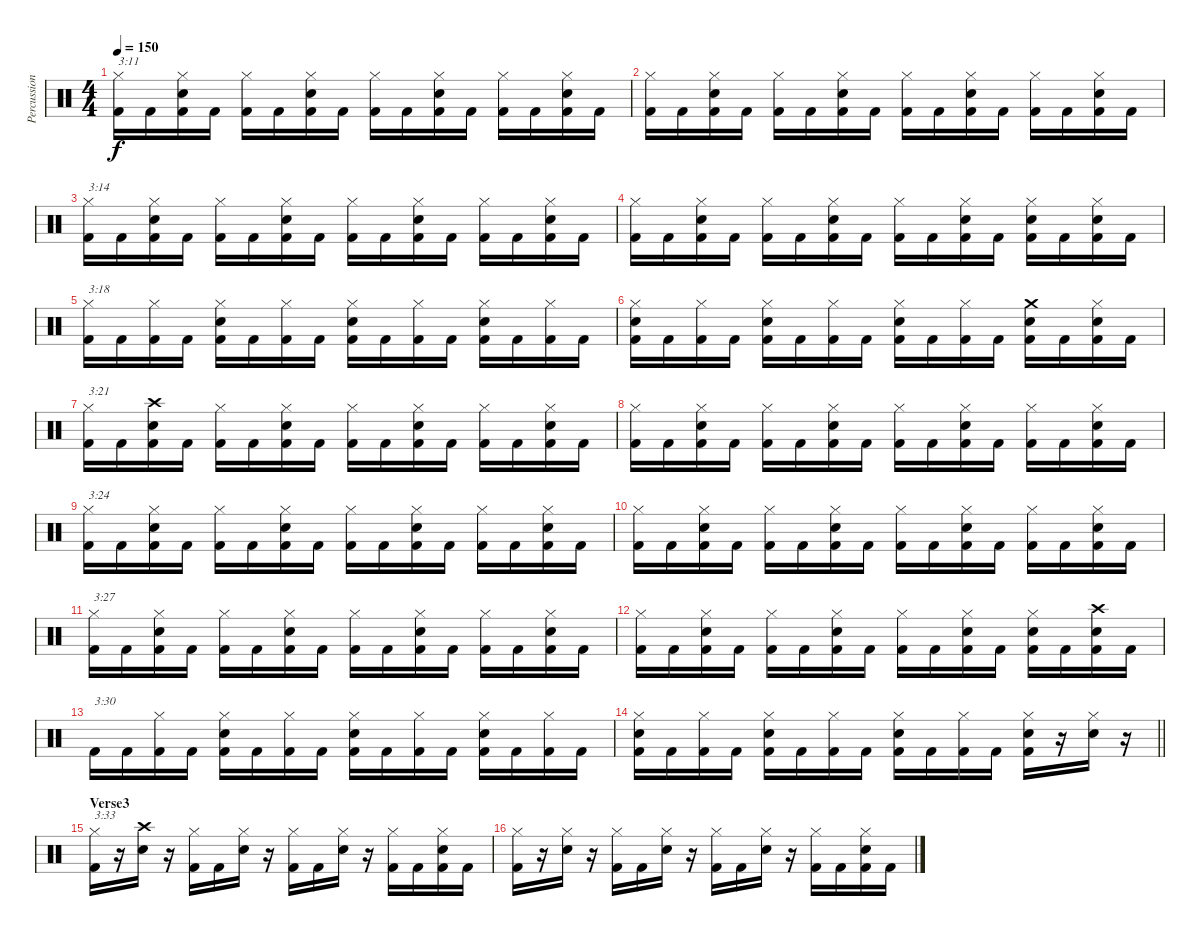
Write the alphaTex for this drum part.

\track ("Percussion" "Percussion") {instrument percussion}
\staff {score}
\articulation defaults
\ts (4 4)
\tempo 150
\clef neutral
\ks c
("Hi-Hat (closed)" "Kick (hit) 2").16{txt "3:11" dy f} "Kick (hit) 2".16 ("Hi-Hat (closed)" "Electric Snare (hit)" "Kick (hit) 2").16 "Kick (hit) 2".16 ("Hi-Hat (closed)" "Kick (hit) 2").16 "Kick (hit) 2".16 ("Hi-Hat (closed)" "Electric Snare (hit)" "Kick (hit) 2").16 "Kick (hit) 2".16 ("Hi-Hat (closed)" "Kick (hit) 2").16 "Kick (hit) 2".16 ("Hi-Hat (closed)" "Electric Snare (hit)" "Kick (hit) 2").16 "Kick (hit) 2".16 ("Hi-Hat (closed)" "Kick (hit) 2").16 "Kick (hit) 2".16 ("Hi-Hat (closed)" "Electric Snare (hit)" "Kick (hit) 2").16 "Kick (hit) 2".16 |
("Hi-Hat (closed)" "Kick (hit) 2").16 "Kick (hit) 2".16 ("Hi-Hat (closed)" "Electric Snare (hit)" "Kick (hit) 2").16 "Kick (hit) 2".16 ("Hi-Hat (closed)" "Kick (hit) 2").16 "Kick (hit) 2".16 ("Hi-Hat (closed)" "Electric Snare (hit)" "Kick (hit) 2").16 "Kick (hit) 2".16 ("Hi-Hat (closed)" "Kick (hit) 2").16 "Kick (hit) 2".16 ("Hi-Hat (closed)" "Electric Snare (hit)" "Kick (hit) 2").16 "Kick (hit) 2".16 ("Hi-Hat (closed)" "Kick (hit) 2").16 "Kick (hit) 2".16 ("Hi-Hat (closed)" "Electric Snare (hit)" "Kick (hit) 2").16 "Kick (hit) 2".16 |
("Hi-Hat (closed)" "Kick (hit) 2").16{txt "3:14"} "Kick (hit) 2".16 ("Hi-Hat (closed)" "Electric Snare (hit)" "Kick (hit) 2").16 "Kick (hit) 2".16 ("Hi-Hat (closed)" "Kick (hit) 2").16 "Kick (hit) 2".16 ("Hi-Hat (closed)" "Electric Snare (hit)" "Kick (hit) 2").16 "Kick (hit) 2".16 ("Hi-Hat (closed)" "Kick (hit) 2").16 "Kick (hit) 2".16 ("Hi-Hat (closed)" "Electric Snare (hit)" "Kick (hit) 2").16 "Kick (hit) 2".16 ("Hi-Hat (closed)" "Kick (hit) 2").16 "Kick (hit) 2".16 ("Hi-Hat (closed)" "Electric Snare (hit)" "Kick (hit) 2").16 "Kick (hit) 2".16 |
("Hi-Hat (closed)" "Kick (hit) 2").16 "Kick (hit) 2".16 ("Hi-Hat (closed)" "Electric Snare (hit)" "Kick (hit) 2").16 "Kick (hit) 2".16 ("Hi-Hat (closed)" "Kick (hit) 2").16 "Kick (hit) 2".16 ("Hi-Hat (closed)" "Electric Snare (hit)" "Kick (hit) 2").16 "Kick (hit) 2".16 ("Hi-Hat (closed)" "Kick (hit) 2").16 "Kick (hit) 2".16 ("Hi-Hat (closed)" "Electric Snare (hit)" "Kick (hit) 2").16 "Kick (hit) 2".16 ("Hi-Hat (closed)" "Electric Snare (hit)" "Kick (hit) 2").16 "Kick (hit) 2".16 ("Hi-Hat (closed)" "Electric Snare (hit)" "Kick (hit) 2").16 "Kick (hit) 2".16 |
("Hi-Hat (closed)" "Kick (hit) 2").16{txt "3:18"} "Kick (hit) 2".16 ("Hi-Hat (closed)" "Kick (hit) 2").16 "Kick (hit) 2".16 ("Hi-Hat (closed)" "Electric Snare (hit)" "Kick (hit) 2").16 "Kick (hit) 2".16 ("Hi-Hat (closed)" "Kick (hit) 2").16 "Kick (hit) 2".16 ("Hi-Hat (closed)" "Electric Snare (hit)" "Kick (hit) 2").16 "Kick (hit) 2".16 ("Hi-Hat (closed)" "Kick (hit) 2").16 "Kick (hit) 2".16 ("Hi-Hat (closed)" "Electric Snare (hit)" "Kick (hit) 2").16 "Kick (hit) 2".16 ("Hi-Hat (closed)" "Kick (hit) 2").16 "Kick (hit) 2".16 |
("Hi-Hat (closed)" "Electric Snare (hit)" "Kick (hit) 2").16 "Kick (hit) 2".16 ("Hi-Hat (closed)" "Kick (hit) 2").16 "Kick (hit) 2".16 ("Hi-Hat (closed)" "Electric Snare (hit)" "Kick (hit) 2").16 "Kick (hit) 2".16 ("Hi-Hat (closed)" "Kick (hit) 2").16 "Kick (hit) 2".16 ("Hi-Hat (closed)" "Electric Snare (hit)" "Kick (hit) 2").16 "Kick (hit) 2".16 ("Hi-Hat (closed)" "Kick (hit) 2").16 "Kick (hit) 2".16 ("Crash medium (hit)" "Electric Snare (hit)" "Kick (hit) 2").16 "Kick (hit) 2".16 ("Hi-Hat (closed)" "Electric Snare (hit)" "Kick (hit) 2").16 "Kick (hit) 2".16 |
("Hi-Hat (closed)" "Kick (hit) 2").16{txt "3:21"} "Kick (hit) 2".16 ("Crash high (hit)" "Electric Snare (hit)" "Kick (hit) 2").16 "Kick (hit) 2".16 ("Hi-Hat (closed)" "Kick (hit) 2").16 "Kick (hit) 2".16 ("Hi-Hat (closed)" "Electric Snare (hit)" "Kick (hit) 2").16 "Kick (hit) 2".16 ("Hi-Hat (closed)" "Kick (hit) 2").16 "Kick (hit) 2".16 ("Hi-Hat (closed)" "Electric Snare (hit)" "Kick (hit) 2").16 "Kick (hit) 2".16 ("Hi-Hat (closed)" "Kick (hit) 2").16 "Kick (hit) 2".16 ("Hi-Hat (closed)" "Electric Snare (hit)" "Kick (hit) 2").16 "Kick (hit) 2".16 |
("Hi-Hat (closed)" "Kick (hit) 2").16 "Kick (hit) 2".16 ("Hi-Hat (closed)" "Electric Snare (hit)" "Kick (hit) 2").16 "Kick (hit) 2".16 ("Hi-Hat (closed)" "Kick (hit) 2").16 "Kick (hit) 2".16 ("Hi-Hat (closed)" "Electric Snare (hit)" "Kick (hit) 2").16 "Kick (hit) 2".16 ("Hi-Hat (closed)" "Kick (hit) 2").16 "Kick (hit) 2".16 ("Hi-Hat (closed)" "Electric Snare (hit)" "Kick (hit) 2").16 "Kick (hit) 2".16 ("Hi-Hat (closed)" "Kick (hit) 2").16 "Kick (hit) 2".16 ("Hi-Hat (closed)" "Electric Snare (hit)" "Kick (hit) 2").16 "Kick (hit) 2".16 |
("Hi-Hat (closed)" "Kick (hit) 2").16{txt "3:24"} "Kick (hit) 2".16 ("Hi-Hat (closed)" "Electric Snare (hit)" "Kick (hit) 2").16 "Kick (hit) 2".16 ("Hi-Hat (closed)" "Kick (hit) 2").16 "Kick (hit) 2".16 ("Hi-Hat (closed)" "Electric Snare (hit)" "Kick (hit) 2").16 "Kick (hit) 2".16 ("Hi-Hat (closed)" "Kick (hit) 2").16 "Kick (hit) 2".16 ("Hi-Hat (closed)" "Electric Snare (hit)" "Kick (hit) 2").16 "Kick (hit) 2".16 ("Hi-Hat (closed)" "Kick (hit) 2").16 "Kick (hit) 2".16 ("Hi-Hat (closed)" "Electric Snare (hit)" "Kick (hit) 2").16 "Kick (hit) 2".16 |
("Hi-Hat (closed)" "Kick (hit) 2").16 "Kick (hit) 2".16 ("Hi-Hat (closed)" "Electric Snare (hit)" "Kick (hit) 2").16 "Kick (hit) 2".16 ("Hi-Hat (closed)" "Kick (hit) 2").16 "Kick (hit) 2".16 ("Hi-Hat (closed)" "Electric Snare (hit)" "Kick (hit) 2").16 "Kick (hit) 2".16 ("Hi-Hat (closed)" "Kick (hit) 2").16 "Kick (hit) 2".16 ("Hi-Hat (closed)" "Electric Snare (hit)" "Kick (hit) 2").16 "Kick (hit) 2".16 ("Hi-Hat (closed)" "Kick (hit) 2").16 "Kick (hit) 2".16 ("Hi-Hat (closed)" "Electric Snare (hit)" "Kick (hit) 2").16 "Kick (hit) 2".16 |
("Hi-Hat (closed)" "Kick (hit) 2").16{txt "3:27"} "Kick (hit) 2".16 ("Hi-Hat (closed)" "Electric Snare (hit)" "Kick (hit) 2").16 "Kick (hit) 2".16 ("Hi-Hat (closed)" "Kick (hit) 2").16 "Kick (hit) 2".16 ("Hi-Hat (closed)" "Electric Snare (hit)" "Kick (hit) 2").16 "Kick (hit) 2".16 ("Hi-Hat (closed)" "Kick (hit) 2").16 "Kick (hit) 2".16 ("Hi-Hat (closed)" "Electric Snare (hit)" "Kick (hit) 2").16 "Kick (hit) 2".16 ("Hi-Hat (closed)" "Kick (hit) 2").16 "Kick (hit) 2".16 ("Hi-Hat (closed)" "Electric Snare (hit)" "Kick (hit) 2").16 "Kick (hit) 2".16 |
("Hi-Hat (closed)" "Kick (hit) 2").16 "Kick (hit) 2".16 ("Hi-Hat (closed)" "Electric Snare (hit)" "Kick (hit) 2").16 "Kick (hit) 2".16 ("Hi-Hat (closed)" "Kick (hit) 2").16 "Kick (hit) 2".16 ("Hi-Hat (closed)" "Electric Snare (hit)" "Kick (hit) 2").16 "Kick (hit) 2".16 ("Hi-Hat (closed)" "Kick (hit) 2").16 "Kick (hit) 2".16 ("Hi-Hat (closed)" "Electric Snare (hit)" "Kick (hit) 2").16 "Kick (hit) 2".16 ("Hi-Hat (closed)" "Electric Snare (hit)" "Kick (hit) 2").16 "Kick (hit) 2".16 ("Crash high (hit)" "Electric Snare (hit)" "Kick (hit) 2").16 "Kick (hit) 2".16 |
"Kick (hit) 2".16{txt "3:30"} "Kick (hit) 2".16 ("Hi-Hat (closed)" "Kick (hit) 2").16 "Kick (hit) 2".16 ("Hi-Hat (closed)" "Electric Snare (hit)" "Kick (hit) 2").16 "Kick (hit) 2".16 ("Hi-Hat (closed)" "Kick (hit) 2").16 "Kick (hit) 2".16 ("Hi-Hat (closed)" "Electric Snare (hit)" "Kick (hit) 2").16 "Kick (hit) 2".16 ("Hi-Hat (closed)" "Kick (hit) 2").16 "Kick (hit) 2".16 ("Hi-Hat (closed)" "Electric Snare (hit)" "Kick (hit) 2").16 "Kick (hit) 2".16 ("Hi-Hat (closed)" "Kick (hit) 2").16 "Kick (hit) 2".16 |
\barLineRight lightlight
("Hi-Hat (closed)" "Electric Snare (hit)" "Kick (hit) 2").16 "Kick (hit) 2".16 ("Hi-Hat (closed)" "Kick (hit) 2").16 "Kick (hit) 2".16 ("Hi-Hat (closed)" "Electric Snare (hit)" "Kick (hit) 2").16 "Kick (hit) 2".16 ("Hi-Hat (closed)" "Kick (hit) 2").16 "Kick (hit) 2".16 ("Hi-Hat (closed)" "Electric Snare (hit)" "Kick (hit) 2").16 "Kick (hit) 2".16 ("Hi-Hat (closed)" "Kick (hit) 2").16 "Kick (hit) 2".16 ("Hi-Hat (closed)" "Electric Snare (hit)" "Kick (hit) 2").16 r.16 ("Hi-Hat (closed)" "Electric Snare (hit)").16 r.16 |
\section ("" "Verse3")
("Hi-Hat (closed)" "Kick (hit) 2").16{txt "3:33"} r.16 ("Crash high (hit)" "Electric Snare (hit)").16 r.16 ("Hi-Hat (closed)" "Kick (hit) 2").16 "Kick (hit) 2".16 ("Hi-Hat (closed)" "Electric Snare (hit)").16 r.16 ("Hi-Hat (closed)" "Kick (hit) 2").16 "Kick (hit) 2".16 ("Hi-Hat (closed)" "Electric Snare (hit)").16 r.16 ("Hi-Hat (closed)" "Kick (hit) 2").16 "Kick (hit) 2".16 ("Hi-Hat (closed)" "Electric Snare (hit)" "Kick (hit) 2").16 "Kick (hit) 2".16 |
("Hi-Hat (closed)" "Kick (hit) 2").16 r.16 ("Hi-Hat (closed)" "Electric Snare (hit)").16 r.16 ("Hi-Hat (closed)" "Kick (hit) 2").16 "Kick (hit) 2".16 ("Hi-Hat (closed)" "Electric Snare (hit)").16 r.16 ("Hi-Hat (closed)" "Kick (hit) 2").16 "Kick (hit) 2".16 ("Hi-Hat (closed)" "Electric Snare (hit)").16 r.16 ("Hi-Hat (closed)" "Kick (hit) 2").16 "Kick (hit) 2".16 ("Hi-Hat (closed)" "Electric Snare (hit)" "Kick (hit) 2").16 "Kick (hit) 2".16
